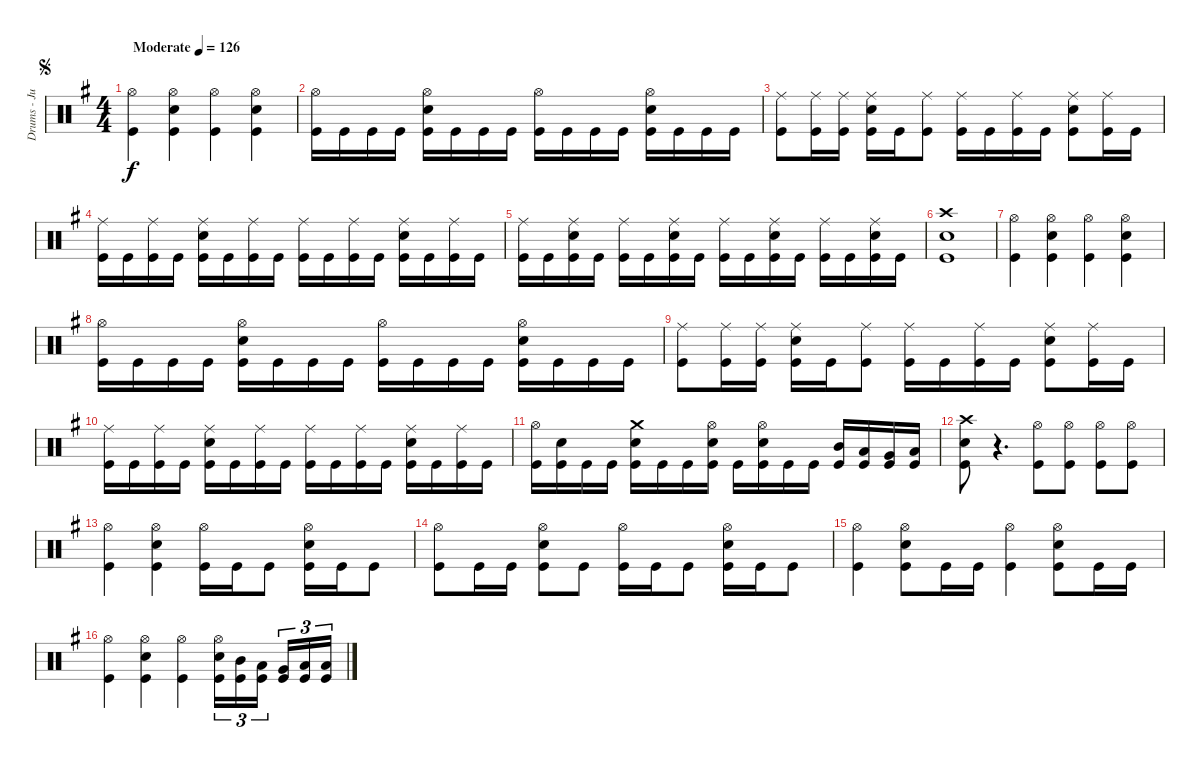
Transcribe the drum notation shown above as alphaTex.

\track ("Drums - Jukka" "Drums - Ju") {instrument percussion}
\staff {score}
\articulation defaults
\ts (4 4)
\jump segno
\tempo (126 "Moderate")
\clef neutral
\ks eminor
("Hi-Hat (open)" "Kick (hit)").4{dy f} ("Kick (hit)" "Snare (hit) 2" "Hi-Hat (open)").4 ("Kick (hit)" "Hi-Hat (open)").4 ("Kick (hit)" "Snare (hit) 2" "Hi-Hat (open)").4 |
("Kick (hit)" "Hi-Hat (open)").16 "Kick (hit)".16 "Kick (hit)".16 "Kick (hit)".16 ("Kick (hit)" "Snare (hit) 2" "Hi-Hat (open)").16 "Kick (hit)".16 "Kick (hit)".16 "Kick (hit)".16 ("Kick (hit)" "Hi-Hat (open)").16 "Kick (hit)".16 "Kick (hit)".16 "Kick (hit)".16 ("Kick (hit)" "Snare (hit) 2" "Hi-Hat (open)").16 "Kick (hit)".16 "Kick (hit)".16 "Kick (hit)".16 |
("Kick (hit)" "Ride (middle)").8 ("Kick (hit)" "Ride (middle)").16 ("Kick (hit)" "Ride (middle)").16 ("Kick (hit)" "Snare (hit) 2" "Ride (middle)").16 "Kick (hit)".16 ("Kick (hit)" "Ride (middle)").8 ("Kick (hit)" "Ride (middle)").16 "Kick (hit)".16 ("Kick (hit)" "Ride (middle)").16 "Kick (hit)".16 ("Kick (hit)" "Snare (hit) 2" "Ride (middle)").8 ("Kick (hit)" "Ride (middle)").16 "Kick (hit)".16 |
("Ride (middle)" "Kick (hit)").16 "Kick (hit)".16 ("Kick (hit)" "Ride (middle)").16 "Kick (hit)".16 ("Kick (hit)" "Snare (hit) 2" "Ride (middle)").16 "Kick (hit)".16 ("Kick (hit)" "Ride (middle)").16 "Kick (hit)".16 ("Kick (hit)" "Ride (middle)").16 "Kick (hit)".16 ("Kick (hit)" "Ride (middle)").16 "Kick (hit)".16 ("Kick (hit)" "Snare (hit) 2" "Ride (middle)").16 "Kick (hit)".16 ("Kick (hit)" "Ride (middle)").16 "Kick (hit)".16 |
("Ride (middle)" "Kick (hit)").16 "Kick (hit)".16 ("Kick (hit)" "Snare (hit) 2" "Ride (middle)").16 "Kick (hit)".16 ("Kick (hit)" "Ride (middle)").16 "Kick (hit)".16 ("Kick (hit)" "Snare (hit) 2" "Ride (middle)").16 "Kick (hit)".16 ("Kick (hit)" "Ride (middle)").16 "Kick (hit)".16 ("Kick (hit)" "Snare (hit) 2" "Ride (middle)").16 "Kick (hit)".16 ("Kick (hit)" "Ride (middle)").16 "Kick (hit)".16 ("Kick (hit)" "Snare (hit) 2" "Ride (middle)").16 "Kick (hit)".16 |
("Kick (hit)" "Snare (hit) 2" "Crash high (hit)").1 |
("Kick (hit)" "Hi-Hat (open)").4 ("Kick (hit)" "Snare (hit) 2" "Hi-Hat (open)").4 ("Kick (hit)" "Hi-Hat (open)").4 ("Kick (hit)" "Snare (hit) 2" "Hi-Hat (open)").4 |
("Kick (hit)" "Hi-Hat (open)").16 "Kick (hit)".16 "Kick (hit)".16 "Kick (hit)".16 ("Kick (hit)" "Snare (hit) 2" "Hi-Hat (open)").16 "Kick (hit)".16 "Kick (hit)".16 "Kick (hit)".16 ("Kick (hit)" "Hi-Hat (open)").16 "Kick (hit)".16 "Kick (hit)".16 "Kick (hit)".16 ("Kick (hit)" "Snare (hit) 2" "Hi-Hat (open)").16 "Kick (hit)".16 "Kick (hit)".16 "Kick (hit)".16 |
("Kick (hit)" "Ride (middle)").8 ("Kick (hit)" "Ride (middle)").16 ("Kick (hit)" "Ride (middle)").16 ("Kick (hit)" "Snare (hit) 2" "Ride (middle)").16 "Kick (hit)".16 ("Kick (hit)" "Ride (middle)").8 ("Kick (hit)" "Ride (middle)").16 "Kick (hit)".16 ("Kick (hit)" "Ride (middle)").16 "Kick (hit)".16 ("Kick (hit)" "Snare (hit) 2" "Ride (middle)").8 ("Kick (hit)" "Ride (middle)").16 "Kick (hit)".16 |
("Ride (middle)" "Kick (hit)").16 "Kick (hit)".16 ("Kick (hit)" "Ride (middle)").16 "Kick (hit)".16 ("Kick (hit)" "Snare (hit) 2" "Ride (middle)").16 "Kick (hit)".16 ("Kick (hit)" "Ride (middle)").16 "Kick (hit)".16 ("Kick (hit)" "Ride (middle)").16 "Kick (hit)".16 ("Kick (hit)" "Ride (middle)").16 "Kick (hit)".16 ("Kick (hit)" "Snare (hit) 2" "Ride (middle)").16 "Kick (hit)".16 ("Kick (hit)" "Ride (middle)").16 "Kick (hit)".16 |
("Kick (hit)" "Hi-Hat (open)").16 ("Kick (hit)" "Snare (hit) 2").16 "Kick (hit)".16 "Kick (hit)".16 ("Kick (hit)" "Crash medium (hit)" "Snare (hit) 2").16 "Kick (hit)".16 "Kick (hit)".16 ("Kick (hit)" "Snare (hit) 2" "Hi-Hat (open)").16 "Kick (hit)".16 ("Kick (hit)" "Snare (hit) 2" "Hi-Hat (open)").16 "Kick (hit)".16 "Kick (hit)".16 ("Kick (hit)" "Mid Tom (hit)").16 ("Kick (hit)" "Low Tom (hit)").16 ("Kick (hit)" "Very Low Tom (hit)").16 ("Kick (hit)" "Low Floor Tom (hit)").16 |
("Kick (hit)" "Snare (hit) 2" "Crash high (hit)").8 r.4{d} ("Hi-Hat (open)" "Kick (hit)").8 ("Hi-Hat (open)" "Kick (hit)").8 ("Hi-Hat (open)" "Kick (hit)").8 ("Hi-Hat (open)" "Kick (hit)").8 |
("Hi-Hat (open)" "Kick (hit)").4 ("Kick (hit)" "Snare (hit) 2" "Hi-Hat (open)").4 ("Kick (hit)" "Hi-Hat (open)").16 "Kick (hit)".16 "Kick (hit)".8 ("Kick (hit)" "Snare (hit) 2" "Hi-Hat (open)").16 "Kick (hit)".16 "Kick (hit)".8 |
("Kick (hit)" "Hi-Hat (open)").8 "Kick (hit)".16 "Kick (hit)".16 ("Kick (hit)" "Snare (hit) 2" "Hi-Hat (open)").8 "Kick (hit)".8 ("Kick (hit)" "Hi-Hat (open)").16 "Kick (hit)".16 "Kick (hit)".8 ("Kick (hit)" "Snare (hit) 2" "Hi-Hat (open)").16 "Kick (hit)".16 "Kick (hit)".8 |
("Kick (hit)" "Hi-Hat (open)").4 ("Kick (hit)" "Snare (hit) 2" "Hi-Hat (open)").8 "Kick (hit)".16 "Kick (hit)".16 ("Kick (hit)" "Hi-Hat (open)").4 ("Kick (hit)" "Snare (hit) 2" "Hi-Hat (open)").8 "Kick (hit)".16 "Kick (hit)".16 |
("Kick (hit)" "Hi-Hat (open)").4 ("Snare (hit) 2" "Kick (hit)" "Hi-Hat (open)").4 ("Kick (hit)" "Hi-Hat (open)").4 ("Kick (hit)" "Snare (hit) 2" "Hi-Hat (open)").16{tu (3 2)} ("Kick (hit)" "Mid Tom (hit)").16{tu (3 2)} ("Kick (hit)" "Low Tom (hit)").16{tu (3 2) beam splitsecondary} ("Kick (hit)" "Very Low Tom (hit)").16{tu (3 2)} ("Kick (hit)" "Low Floor Tom (hit)").16{tu (3 2)} ("Kick (hit)" "Low Floor Tom (hit)").16{tu (3 2)}
